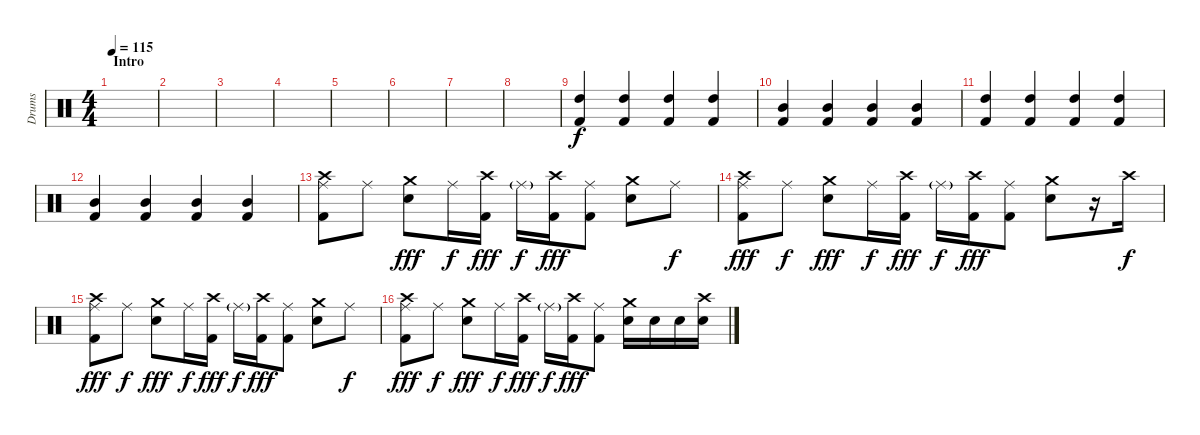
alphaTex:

\track ("Drums" "Drums") {instrument percussion}
\staff {score}
\articulation defaults
\ts (4 4)
\section ("" "Intro ")
\tempo 115
\clef neutral
\ks c
|
|
|
|
|
|
|
|
("High Tom (hit)" "Kick (hit) 2").4 ("High Tom (hit)" "Kick (hit) 2").4 ("High Tom (hit)" "Kick (hit) 2").4 ("High Tom (hit)" "Kick (hit) 2").4 |
("Mid Tom (hit)" "Kick (hit) 2").4 ("Mid Tom (hit)" "Kick (hit) 2").4 ("Mid Tom (hit)" "Kick (hit) 2").4 ("Mid Tom (hit)" "Kick (hit) 2").4 |
("High Tom (hit)" "Kick (hit) 2").4 ("High Tom (hit)" "Kick (hit) 2").4 ("High Tom (hit)" "Kick (hit) 2").4 ("High Tom (hit)" "Kick (hit) 2").4 |
("Mid Tom (hit)" "Kick (hit) 2").4 ("Mid Tom (hit)" "Kick (hit) 2").4 ("Mid Tom (hit)" "Kick (hit) 2").4 ("Mid Tom (hit)" "Kick (hit) 2").4 |
("Ride (middle)" "Crash high (hit)" "Kick (hit) 2").8 "Ride (middle)".8{dy f} ("Crash medium (hit)" "Electric Snare (hit)").8{dy fff} "Ride (middle)".16{dy f} ("Crash high (hit)" "Kick (hit) 2").16{dy fff} "Ride (middle)"{g}.16{dy f} ("Crash high (hit)" "Kick (hit) 2").16{dy fff} ("Ride (middle)" "Kick (hit) 2").8 ("Crash medium (hit)" "Electric Snare (hit)").8 "Ride (middle)".8{dy f} |
("Ride (middle)" "Crash high (hit)" "Kick (hit) 2").8{dy fff} "Ride (middle)".8{dy f} ("Crash medium (hit)" "Electric Snare (hit)").8{dy fff} "Ride (middle)".16{dy f} ("Crash high (hit)" "Kick (hit) 2").16{dy fff} "Ride (middle)"{g}.16{dy f} ("Crash high (hit)" "Kick (hit) 2").16{dy fff} ("Ride (middle)" "Kick (hit) 2").8 ("Crash medium (hit)" "Electric Snare (hit)").8 r.16 "Crash high (hit)".16{dy f} |
("Ride (middle)" "Crash high (hit)" "Kick (hit) 2").8{dy fff} "Ride (middle)".8{dy f} ("Crash medium (hit)" "Electric Snare (hit)").8{dy fff} "Ride (middle)".16{dy f} ("Crash high (hit)" "Kick (hit) 2").16{dy fff} "Ride (middle)"{g}.16{dy f} ("Crash high (hit)" "Kick (hit) 2").16{dy fff} ("Ride (middle)" "Kick (hit) 2").8 ("Crash medium (hit)" "Electric Snare (hit)").8 "Ride (middle)".8{dy f} |
("Ride (middle)" "Crash high (hit)" "Kick (hit) 2").8{dy fff} "Ride (middle)".8{dy f} ("Crash medium (hit)" "Electric Snare (hit)").8{dy fff} "Ride (middle)".16{dy f} ("Crash high (hit)" "Kick (hit) 2").16{dy fff} "Ride (middle)"{g}.16{dy f} ("Crash high (hit)" "Kick (hit) 2").16{dy fff} ("Ride (middle)" "Kick (hit) 2").8 ("Crash medium (hit)" "Electric Snare (hit)").16 "Electric Snare (hit)".16 "Electric Snare (hit)".16 ("Crash high (hit)" "Electric Snare (hit)").16
